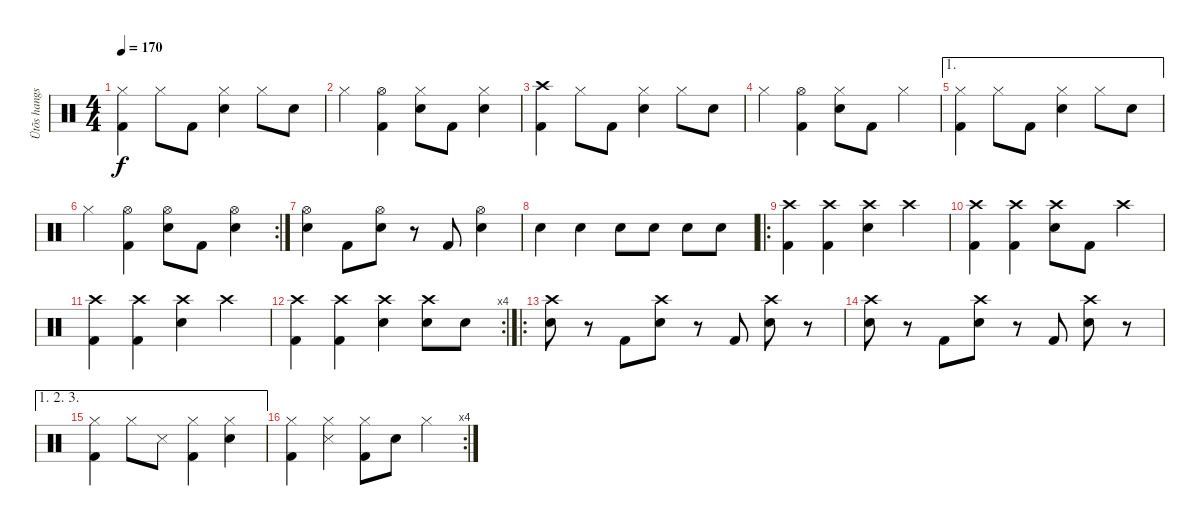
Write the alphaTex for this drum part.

\track ("Ütõs hangszer" "Ütõs hangs") {instrument percussion}
\staff {score}
\articulation defaults
\ts (4 4)
\tempo 170
\clef neutral
\ks c
("Hi-Hat (closed)" "Kick (hit) 2").4{dy f} "Hi-Hat (closed)".8 "Kick (hit) 2".8 ("Hi-Hat (closed)" "Electric Snare (hit)").4 "Hi-Hat (closed)".8 "Electric Snare (hit)".8 |
"Hi-Hat (closed)".4 ("Hi-Hat (open)" "Kick (hit) 2").4 ("Hi-Hat (closed)" "Electric Snare (hit)").8 "Kick (hit) 2".8 ("Hi-Hat (closed)" "Electric Snare (hit)").4 |
("Crash high (hit)" "Kick (hit) 2").4 "Hi-Hat (closed)".8 "Kick (hit) 2".8 ("Hi-Hat (closed)" "Electric Snare (hit)").4 "Hi-Hat (closed)".8 "Electric Snare (hit)".8 |
"Hi-Hat (closed)".4 ("Hi-Hat (open)" "Kick (hit) 2").4 ("Hi-Hat (closed)" "Electric Snare (hit)").8 "Kick (hit) 2".8 "Hi-Hat (closed)".4 |
\ae 1
("Hi-Hat (closed)" "Kick (hit) 2").4 "Hi-Hat (closed)".8 "Kick (hit) 2".8 ("Hi-Hat (closed)" "Electric Snare (hit)").4 "Hi-Hat (closed)".8 "Electric Snare (hit)".8 |
\rc 2 "Hi-Hat (closed)".4
("Hi-Hat (open)" "Kick (hit) 2").4 ("Hi-Hat (open)" "Electric Snare (hit)").8 "Kick (hit) 2".8 ("Hi-Hat (open)" "Electric Snare (hit)").4 |
("Hi-Hat (open)" "Electric Snare (hit)").4 "Kick (hit) 2".8 ("Hi-Hat (open)" "Electric Snare (hit)").8 r.8 "Kick (hit) 2".8 ("Hi-Hat (open)" "Electric Snare (hit)").4 |
"Electric Snare (hit)".4 "Electric Snare (hit)".4 "Electric Snare (hit)".8 "Electric Snare (hit)".8 "Electric Snare (hit)".8 "Electric Snare (hit)".8 |
\ro
("Crash high (hit)" "Kick (hit) 2").4 ("Crash high (hit)" "Kick (hit) 2").4 ("Crash high (hit)" "Electric Snare (hit)").4 "Crash high (hit)".4 |
("Crash high (hit)" "Kick (hit) 2").4 ("Crash high (hit)" "Kick (hit) 2").4 ("Crash high (hit)" "Electric Snare (hit)").8 "Kick (hit) 2".8 "Crash high (hit)".4 |
("Crash high (hit)" "Kick (hit) 2").4 ("Crash high (hit)" "Kick (hit) 2").4 ("Crash high (hit)" "Electric Snare (hit)").4 "Crash high (hit)".4 |
\rc 4
("Crash high (hit)" "Kick (hit) 2").4 ("Crash high (hit)" "Kick (hit) 2").4 ("Crash high (hit)" "Electric Snare (hit)").4 ("Crash high (hit)" "Electric Snare (hit)").8 "Electric Snare (hit)".8 |
\ro
("Crash high (hit)" "Electric Snare (hit)").8 r.8 "Kick (hit) 2".8 ("Crash high (hit)" "Electric Snare (hit)").8 r.8 "Kick (hit) 2".8 ("Crash high (hit)" "Electric Snare (hit)").8 r.8 |
("Crash high (hit)" "Electric Snare (hit)").8 r.8 "Kick (hit) 2".8 ("Crash high (hit)" "Electric Snare (hit)").8 r.8 "Kick (hit) 2".8 ("Crash high (hit)" "Electric Snare (hit)").8 r.8 |
\ae (1 2 3)
("Hi-Hat (closed)" "Kick (hit) 2").4 "Hi-Hat (closed)".8 "Snare (side stick) 3".8 ("Hi-Hat (closed)" "Kick (hit) 2").4 ("Hi-Hat (closed)" "Electric Snare (hit)").4 |
\rc 4
("Hi-Hat (closed)" "Kick (hit) 2").4 ("Hi-Hat (closed)" "Snare (side stick) 3").4 ("Hi-Hat (closed)" "Kick (hit) 2").8 "Electric Snare (hit)".8 "Hi-Hat (closed)".4
